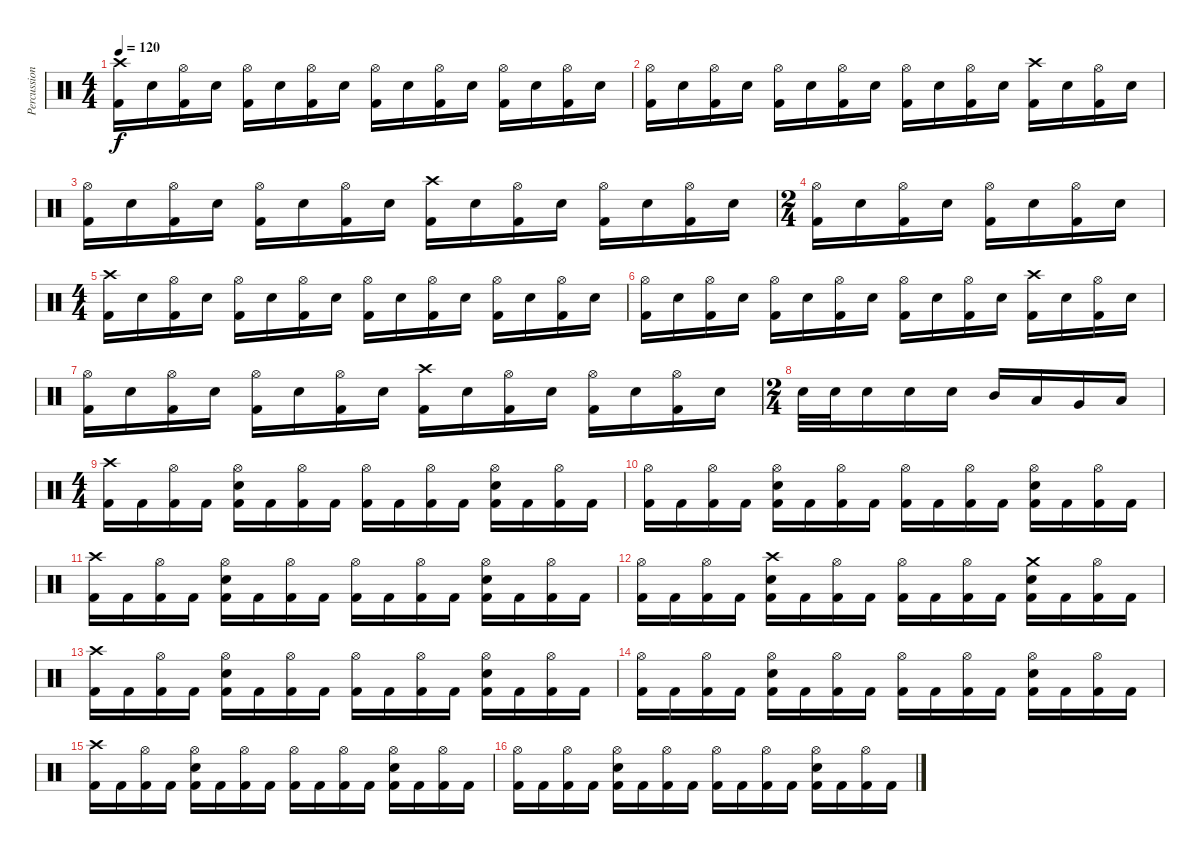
\track ("Percussion" "Percussion") {instrument percussion}
\staff {score}
\articulation defaults
\ts (4 4)
\tempo 120
\clef neutral
\ks c
("Crash high (hit)" "Kick (hit) 2").16{dy f} "Snare (hit) 2".16 ("Hi-Hat (open)" "Kick (hit) 2").16 "Snare (hit) 2".16 ("Hi-Hat (open)" "Kick (hit) 2").16 "Snare (hit) 2".16 ("Hi-Hat (open)" "Kick (hit) 2").16 "Snare (hit) 2".16 ("Hi-Hat (open)" "Kick (hit) 2").16 "Snare (hit) 2".16 ("Hi-Hat (open)" "Kick (hit) 2").16 "Snare (hit) 2".16 ("Hi-Hat (open)" "Kick (hit) 2").16 "Snare (hit) 2".16 ("Hi-Hat (open)" "Kick (hit) 2").16 "Snare (hit) 2".16 |
("Hi-Hat (open)" "Kick (hit) 2").16 "Snare (hit) 2".16 ("Hi-Hat (open)" "Kick (hit) 2").16 "Snare (hit) 2".16 ("Hi-Hat (open)" "Kick (hit) 2").16 "Snare (hit) 2".16 ("Hi-Hat (open)" "Kick (hit) 2").16 "Snare (hit) 2".16 ("Hi-Hat (open)" "Kick (hit) 2").16 "Snare (hit) 2".16 ("Hi-Hat (open)" "Kick (hit) 2").16 "Snare (hit) 2".16 ("Crash high (hit)" "Kick (hit) 2").16 "Snare (hit) 2".16 ("Hi-Hat (open)" "Kick (hit) 2").16 "Snare (hit) 2".16 |
("Hi-Hat (open)" "Kick (hit) 2").16 "Snare (hit) 2".16 ("Hi-Hat (open)" "Kick (hit) 2").16 "Snare (hit) 2".16 ("Hi-Hat (open)" "Kick (hit) 2").16 "Snare (hit) 2".16 ("Hi-Hat (open)" "Kick (hit) 2").16 "Snare (hit) 2".16 ("Crash high (hit)" "Kick (hit) 2").16 "Snare (hit) 2".16 ("Hi-Hat (open)" "Kick (hit) 2").16 "Snare (hit) 2".16 ("Hi-Hat (open)" "Kick (hit) 2").16 "Snare (hit) 2".16 ("Hi-Hat (open)" "Kick (hit) 2").16 "Snare (hit) 2".16 |
\ts (2 4)
("Hi-Hat (open)" "Kick (hit) 2").16 "Snare (hit) 2".16 ("Hi-Hat (open)" "Kick (hit) 2").16 "Snare (hit) 2".16 ("Hi-Hat (open)" "Kick (hit) 2").16 "Snare (hit) 2".16 ("Hi-Hat (open)" "Kick (hit) 2").16 "Snare (hit) 2".16 |
\ts (4 4)
("Crash high (hit)" "Kick (hit) 2").16 "Snare (hit) 2".16 ("Hi-Hat (open)" "Kick (hit) 2").16 "Snare (hit) 2".16 ("Hi-Hat (open)" "Kick (hit) 2").16 "Snare (hit) 2".16 ("Hi-Hat (open)" "Kick (hit) 2").16 "Snare (hit) 2".16 ("Hi-Hat (open)" "Kick (hit) 2").16 "Snare (hit) 2".16 ("Hi-Hat (open)" "Kick (hit) 2").16 "Snare (hit) 2".16 ("Hi-Hat (open)" "Kick (hit) 2").16 "Snare (hit) 2".16 ("Hi-Hat (open)" "Kick (hit) 2").16 "Snare (hit) 2".16 |
("Hi-Hat (open)" "Kick (hit) 2").16 "Snare (hit) 2".16 ("Hi-Hat (open)" "Kick (hit) 2").16 "Snare (hit) 2".16 ("Hi-Hat (open)" "Kick (hit) 2").16 "Snare (hit) 2".16 ("Hi-Hat (open)" "Kick (hit) 2").16 "Snare (hit) 2".16 ("Hi-Hat (open)" "Kick (hit) 2").16 "Snare (hit) 2".16 ("Hi-Hat (open)" "Kick (hit) 2").16 "Snare (hit) 2".16 ("Crash high (hit)" "Kick (hit) 2").16 "Snare (hit) 2".16 ("Hi-Hat (open)" "Kick (hit) 2").16 "Snare (hit) 2".16 |
("Hi-Hat (open)" "Kick (hit) 2").16 "Snare (hit) 2".16 ("Hi-Hat (open)" "Kick (hit) 2").16 "Snare (hit) 2".16 ("Hi-Hat (open)" "Kick (hit) 2").16 "Snare (hit) 2".16 ("Hi-Hat (open)" "Kick (hit) 2").16 "Snare (hit) 2".16 ("Crash high (hit)" "Kick (hit) 2").16 "Snare (hit) 2".16 ("Hi-Hat (open)" "Kick (hit) 2").16 "Snare (hit) 2".16 ("Hi-Hat (open)" "Kick (hit) 2").16 "Snare (hit) 2".16 ("Hi-Hat (open)" "Kick (hit) 2").16 "Snare (hit) 2".16 |
\ts (2 4)
"Snare (hit) 2".32 "Snare (hit) 2".32 "Snare (hit) 2".16 "Snare (hit) 2".16 "Snare (hit) 2".16 "Mid Tom (hit)".16 "Low Tom (hit)".16 "Very Low Tom (hit)".16 "Low Floor Tom (hit)".16 |
\ts (4 4)
("Crash high (hit)" "Kick (hit) 2").16 "Kick (hit) 2".16 ("Hi-Hat (open)" "Kick (hit) 2").16 "Kick (hit) 2".16 ("Hi-Hat (open)" "Snare (hit) 2" "Kick (hit) 2").16 "Kick (hit) 2".16 ("Hi-Hat (open)" "Kick (hit) 2").16 "Kick (hit) 2".16 ("Hi-Hat (open)" "Kick (hit) 2").16 "Kick (hit) 2".16 ("Hi-Hat (open)" "Kick (hit) 2").16 "Kick (hit) 2".16 ("Hi-Hat (open)" "Snare (hit) 2" "Kick (hit) 2").16 "Kick (hit) 2".16 ("Hi-Hat (open)" "Kick (hit) 2").16 "Kick (hit) 2".16 |
("Hi-Hat (open)" "Kick (hit) 2").16 "Kick (hit) 2".16 ("Hi-Hat (open)" "Kick (hit) 2").16 "Kick (hit) 2".16 ("Hi-Hat (open)" "Snare (hit) 2" "Kick (hit) 2").16 "Kick (hit) 2".16 ("Hi-Hat (open)" "Kick (hit) 2").16 "Kick (hit) 2".16 ("Hi-Hat (open)" "Kick (hit) 2").16 "Kick (hit) 2".16 ("Hi-Hat (open)" "Kick (hit) 2").16 "Kick (hit) 2".16 ("Hi-Hat (open)" "Snare (hit) 2" "Kick (hit) 2").16 "Kick (hit) 2".16 ("Hi-Hat (open)" "Kick (hit) 2").16 "Kick (hit) 2".16 |
("Crash high (hit)" "Kick (hit) 2").16 "Kick (hit) 2".16 ("Hi-Hat (open)" "Kick (hit) 2").16 "Kick (hit) 2".16 ("Hi-Hat (open)" "Snare (hit) 2" "Kick (hit) 2").16 "Kick (hit) 2".16 ("Hi-Hat (open)" "Kick (hit) 2").16 "Kick (hit) 2".16 ("Hi-Hat (open)" "Kick (hit) 2").16 "Kick (hit) 2".16 ("Hi-Hat (open)" "Kick (hit) 2").16 "Kick (hit) 2".16 ("Hi-Hat (open)" "Snare (hit) 2" "Kick (hit) 2").16 "Kick (hit) 2".16 ("Hi-Hat (open)" "Kick (hit) 2").16 "Kick (hit) 2".16 |
("Hi-Hat (open)" "Kick (hit) 2").16 "Kick (hit) 2".16 ("Hi-Hat (open)" "Kick (hit) 2").16 "Kick (hit) 2".16 ("Crash high (hit)" "Snare (hit) 2" "Kick (hit) 2").16 "Kick (hit) 2".16 ("Hi-Hat (open)" "Kick (hit) 2").16 "Kick (hit) 2".16 ("Hi-Hat (open)" "Kick (hit) 2").16 "Kick (hit) 2".16 ("Hi-Hat (open)" "Kick (hit) 2").16 "Kick (hit) 2".16 ("Crash medium (hit)" "Snare (hit) 2" "Kick (hit) 2").16 "Kick (hit) 2".16 ("Hi-Hat (open)" "Kick (hit) 2").16 "Kick (hit) 2".16 |
("Crash high (hit)" "Kick (hit) 2").16 "Kick (hit) 2".16 ("Hi-Hat (open)" "Kick (hit) 2").16 "Kick (hit) 2".16 ("Hi-Hat (open)" "Snare (hit) 2" "Kick (hit) 2").16 "Kick (hit) 2".16 ("Hi-Hat (open)" "Kick (hit) 2").16 "Kick (hit) 2".16 ("Hi-Hat (open)" "Kick (hit) 2").16 "Kick (hit) 2".16 ("Hi-Hat (open)" "Kick (hit) 2").16 "Kick (hit) 2".16 ("Hi-Hat (open)" "Snare (hit) 2" "Kick (hit) 2").16 "Kick (hit) 2".16 ("Hi-Hat (open)" "Kick (hit) 2").16 "Kick (hit) 2".16 |
("Hi-Hat (open)" "Kick (hit) 2").16 "Kick (hit) 2".16 ("Hi-Hat (open)" "Kick (hit) 2").16 "Kick (hit) 2".16 ("Hi-Hat (open)" "Snare (hit) 2" "Kick (hit) 2").16 "Kick (hit) 2".16 ("Hi-Hat (open)" "Kick (hit) 2").16 "Kick (hit) 2".16 ("Hi-Hat (open)" "Kick (hit) 2").16 "Kick (hit) 2".16 ("Hi-Hat (open)" "Kick (hit) 2").16 "Kick (hit) 2".16 ("Hi-Hat (open)" "Snare (hit) 2" "Kick (hit) 2").16 "Kick (hit) 2".16 ("Hi-Hat (open)" "Kick (hit) 2").16 "Kick (hit) 2".16 |
("Crash high (hit)" "Kick (hit) 2").16 "Kick (hit) 2".16 ("Hi-Hat (open)" "Kick (hit) 2").16 "Kick (hit) 2".16 ("Hi-Hat (open)" "Snare (hit) 2" "Kick (hit) 2").16 "Kick (hit) 2".16 ("Hi-Hat (open)" "Kick (hit) 2").16 "Kick (hit) 2".16 ("Hi-Hat (open)" "Kick (hit) 2").16 "Kick (hit) 2".16 ("Hi-Hat (open)" "Kick (hit) 2").16 "Kick (hit) 2".16 ("Hi-Hat (open)" "Snare (hit) 2" "Kick (hit) 2").16 "Kick (hit) 2".16 ("Hi-Hat (open)" "Kick (hit) 2").16 "Kick (hit) 2".16 |
("Hi-Hat (open)" "Kick (hit) 2").16 "Kick (hit) 2".16 ("Hi-Hat (open)" "Kick (hit) 2").16 "Kick (hit) 2".16 ("Hi-Hat (open)" "Snare (hit) 2" "Kick (hit) 2").16 "Kick (hit) 2".16 ("Hi-Hat (open)" "Kick (hit) 2").16 "Kick (hit) 2".16 ("Hi-Hat (open)" "Kick (hit) 2").16 "Kick (hit) 2".16 ("Hi-Hat (open)" "Kick (hit) 2").16 "Kick (hit) 2".16 ("Hi-Hat (open)" "Snare (hit) 2" "Kick (hit) 2").16 "Kick (hit) 2".16 ("Hi-Hat (open)" "Kick (hit) 2").16 "Kick (hit) 2".16
